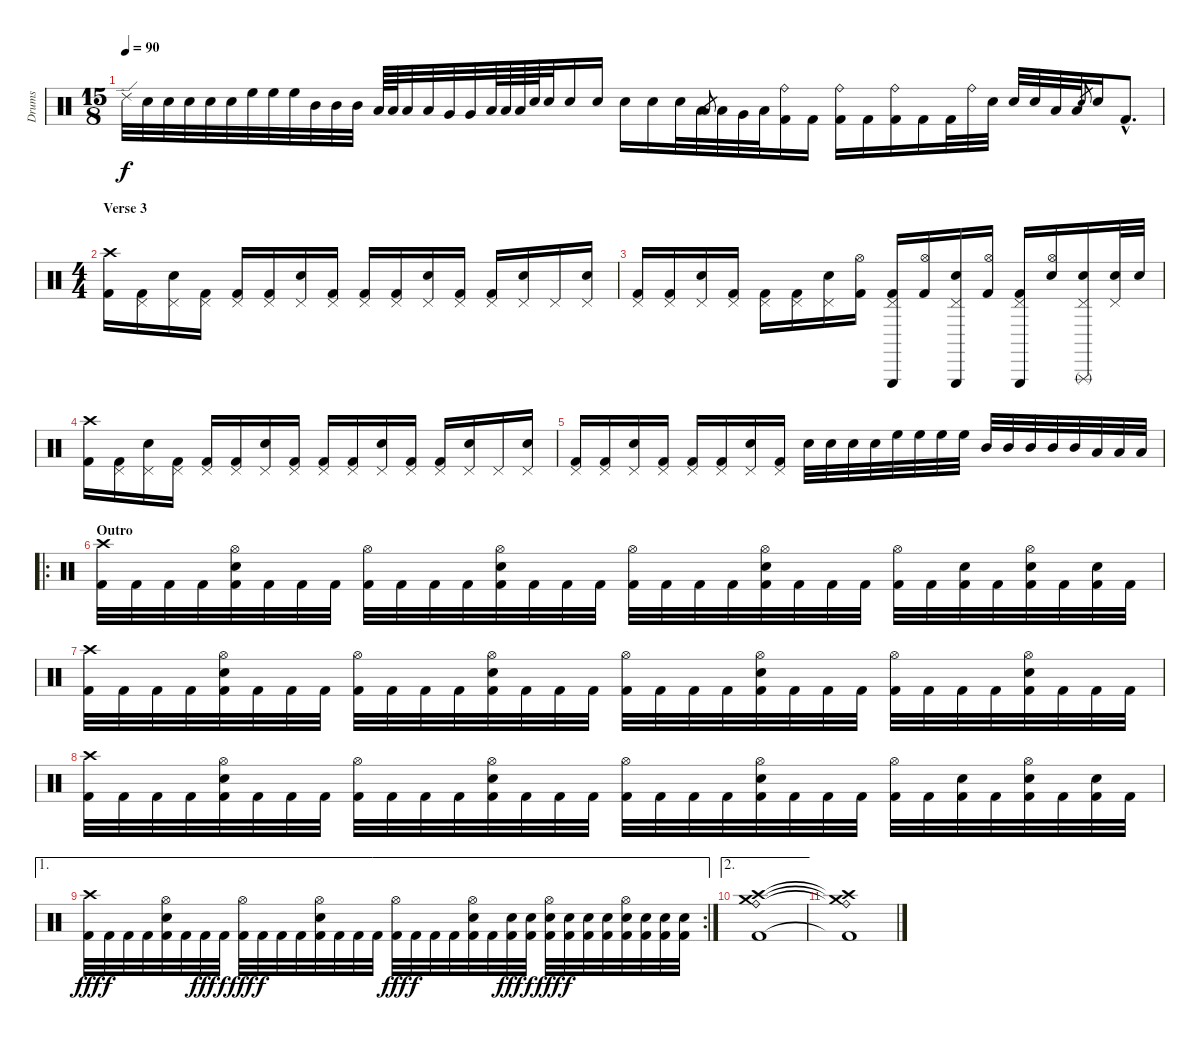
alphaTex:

\track ("Drums" "Drums") {instrument percussion}
\staff {score}
\articulation defaults
\ts (15 8)
\tempo 90
\clef neutral
\ks c "Ride (edge) 2".32{dy f} "Electric Snare (hit)".32 "Electric Snare (hit)".32 "Electric Snare (hit)".32 "Electric Snare (hit)".32 "Electric Snare (hit)".32 "High Floor Tom (hit)".32 "High Floor Tom (hit)".32 "High Floor Tom (hit)".32 "Mid Tom (hit)".32 "Mid Tom (hit)".32 "Mid Tom (hit)".32 "Low Tom (hit)".64 "Low Tom (hit)".64 "Low Tom (hit)".32 "Low Tom (hit)".32 "Very Low Tom (hit)".32 "Very Low Tom (hit)".32 "Low Tom (hit)".64 "Low Tom (hit)".64 "Low Tom (hit)".64 "Electric Snare (hit)".64 "Electric Snare (hit)".32 "Electric Snare (hit)".16 "Electric Snare (hit)".16 "Electric Snare (hit)".16 "Electric Snare (hit)".16 "Electric Snare (hit)".32 "Low Tom (hit)".32 "Low Tom (hit)".8{gr} "Low Tom (hit)".32 "Very Low Tom (hit)".32 "Low Tom (hit)".32
("Ride (bell)" "Kick (hit) 2").16 "Kick (hit) 2".16 ("Ride (bell)" "Kick (hit) 2").16 "Kick (hit) 2".16 ("Ride (bell)" "Kick (hit) 2").16 "Kick (hit) 2".16 "Kick (hit) 2".32 "Ride (bell)".32 "Electric Snare (hit)".32 "Electric Snare (hit)".32 "Electric Snare (hit)".32 "Low Tom (hit)".32 "Low Tom (hit)".32 "Electric Snare (hit)".8{gr} "Electric Snare (hit)".16 "Kick (hit) 2"{hac}.8{d} |
\ts (4 4)
\section ("" "Verse 3")
("Crash high (hit)" "Kick (hit) 2").16 ("Pedal Hi-Hat (hit)" "Kick (hit) 2").16 ("Pedal Hi-Hat (hit)" "Electric Snare (hit)").16 ("Pedal Hi-Hat (hit)" "Kick (hit) 2").16 ("Pedal Hi-Hat (hit)" "Kick (hit) 2").16 ("Pedal Hi-Hat (hit)" "Kick (hit) 2").16 ("Pedal Hi-Hat (hit)" "Electric Snare (hit)").16 ("Pedal Hi-Hat (hit)" "Kick (hit) 2").16 ("Pedal Hi-Hat (hit)" "Kick (hit) 2").16 ("Pedal Hi-Hat (hit)" "Kick (hit) 2").16 ("Pedal Hi-Hat (hit)" "Electric Snare (hit)").16 ("Pedal Hi-Hat (hit)" "Kick (hit) 2").16 ("Pedal Hi-Hat (hit)" "Kick (hit) 2").16 ("Pedal Hi-Hat (hit)" "Electric Snare (hit)").16 "Pedal Hi-Hat (hit)".16 ("Pedal Hi-Hat (hit)" "Electric Snare (hit)").16 |
("Pedal Hi-Hat (hit)" "Kick (hit) 2").16 ("Pedal Hi-Hat (hit)" "Kick (hit) 2").16 ("Pedal Hi-Hat (hit)" "Electric Snare (hit)").16 ("Pedal Hi-Hat (hit)" "Kick (hit) 2").16 ("Pedal Hi-Hat (hit)" "Kick (hit) 2").16 ("Pedal Hi-Hat (hit)" "Kick (hit) 2").16 ("Pedal Hi-Hat (hit)" "Electric Snare (hit)").16 ("Hi-Hat (open)" "Kick (hit) 2").16 ("Pedal Hi-Hat (hit)" "Triangle (hit)" "Kick (hit) 2").16 ("Hi-Hat (open)" "Kick (hit) 2").16 ("Pedal Hi-Hat (hit)" "Electric Snare (hit)" "Triangle (hit)").16 ("Hi-Hat (open)" "Kick (hit) 2").16 ("Pedal Hi-Hat (hit)" "Triangle (hit)" "Kick (hit) 2").16 ("Hi-Hat (open)" "Electric Snare (hit)").16 ("Pedal Hi-Hat (hit)" "Electric Snare (hit)" "Triangle (rnute)").16 ("Pedal Hi-Hat (hit)" "Electric Snare (hit)").32 "Electric Snare (hit)".32 |
("Crash high (hit)" "Kick (hit) 2").16 ("Pedal Hi-Hat (hit)" "Kick (hit) 2").16 ("Pedal Hi-Hat (hit)" "Electric Snare (hit)").16 ("Pedal Hi-Hat (hit)" "Kick (hit) 2").16 ("Pedal Hi-Hat (hit)" "Kick (hit) 2").16 ("Pedal Hi-Hat (hit)" "Kick (hit) 2").16 ("Pedal Hi-Hat (hit)" "Electric Snare (hit)").16 ("Pedal Hi-Hat (hit)" "Kick (hit) 2").16 ("Pedal Hi-Hat (hit)" "Kick (hit) 2").16 ("Pedal Hi-Hat (hit)" "Kick (hit) 2").16 ("Pedal Hi-Hat (hit)" "Electric Snare (hit)").16 ("Pedal Hi-Hat (hit)" "Kick (hit) 2").16 ("Pedal Hi-Hat (hit)" "Kick (hit) 2").16 ("Pedal Hi-Hat (hit)" "Electric Snare (hit)").16 "Pedal Hi-Hat (hit)".16 ("Pedal Hi-Hat (hit)" "Electric Snare (hit)").16 |
("Pedal Hi-Hat (hit)" "Kick (hit) 2").16 ("Pedal Hi-Hat (hit)" "Kick (hit) 2").16 ("Pedal Hi-Hat (hit)" "Electric Snare (hit)").16 ("Pedal Hi-Hat (hit)" "Kick (hit) 2").16 ("Pedal Hi-Hat (hit)" "Kick (hit) 2").16 ("Pedal Hi-Hat (hit)" "Kick (hit) 2").16 ("Pedal Hi-Hat (hit)" "Electric Snare (hit)").16 ("Pedal Hi-Hat (hit)" "Kick (hit) 2").16 "Electric Snare (hit)".32 "Electric Snare (hit)".32 "Electric Snare (hit)".32 "Electric Snare (hit)".32 "High Floor Tom (hit)".32 "High Floor Tom (hit)".32 "High Floor Tom (hit)".32 "High Floor Tom (hit)".32 "Mid Tom (hit)".32 "Mid Tom (hit)".32 "Mid Tom (hit)".32 "Mid Tom (hit)".32 "Mid Tom (hit)".32 "Low Tom (hit)".32 "Low Tom (hit)".32 "Low Tom (hit)".32 |
\ro
\section ("" "Outro")
("Crash high (hit)" "Kick (hit) 2").32 "Kick (hit) 2".32 "Kick (hit) 2".32 "Kick (hit) 2".32 ("Hi-Hat (open)" "Electric Snare (hit)" "Kick (hit) 2").32 "Kick (hit) 2".32 "Kick (hit) 2".32 "Kick (hit) 2".32 ("Hi-Hat (open)" "Kick (hit) 2").32 "Kick (hit) 2".32 "Kick (hit) 2".32 "Kick (hit) 2".32 ("Hi-Hat (open)" "Electric Snare (hit)" "Kick (hit) 2").32 "Kick (hit) 2".32 "Kick (hit) 2".32 "Kick (hit) 2".32 ("Hi-Hat (open)" "Kick (hit) 2").32 "Kick (hit) 2".32 "Kick (hit) 2".32 "Kick (hit) 2".32 ("Hi-Hat (open)" "Electric Snare (hit)" "Kick (hit) 2").32 "Kick (hit) 2".32 "Kick (hit) 2".32 "Kick (hit) 2".32 ("Hi-Hat (open)" "Kick (hit) 2").32 "Kick (hit) 2".32 ("Electric Snare (hit)" "Kick (hit) 2").32 "Kick (hit) 2".32 ("Hi-Hat (open)" "Electric Snare (hit)" "Kick (hit) 2").32 "Kick (hit) 2".32 ("Electric Snare (hit)" "Kick (hit) 2").32 "Kick (hit) 2".32 |
("Crash high (hit)" "Kick (hit) 2").32 "Kick (hit) 2".32 "Kick (hit) 2".32 "Kick (hit) 2".32 ("Hi-Hat (open)" "Electric Snare (hit)" "Kick (hit) 2").32 "Kick (hit) 2".32 "Kick (hit) 2".32 "Kick (hit) 2".32 ("Hi-Hat (open)" "Kick (hit) 2").32 "Kick (hit) 2".32 "Kick (hit) 2".32 "Kick (hit) 2".32 ("Hi-Hat (open)" "Electric Snare (hit)" "Kick (hit) 2").32 "Kick (hit) 2".32 "Kick (hit) 2".32 "Kick (hit) 2".32 ("Hi-Hat (open)" "Kick (hit) 2").32 "Kick (hit) 2".32 "Kick (hit) 2".32 "Kick (hit) 2".32 ("Hi-Hat (open)" "Electric Snare (hit)" "Kick (hit) 2").32 "Kick (hit) 2".32 "Kick (hit) 2".32 "Kick (hit) 2".32 ("Hi-Hat (open)" "Kick (hit) 2").32 "Kick (hit) 2".32 "Kick (hit) 2".32 "Kick (hit) 2".32 ("Hi-Hat (open)" "Electric Snare (hit)" "Kick (hit) 2").32 "Kick (hit) 2".32 "Kick (hit) 2".32 "Kick (hit) 2".32 |
("Crash high (hit)" "Kick (hit) 2").32 "Kick (hit) 2".32 "Kick (hit) 2".32 "Kick (hit) 2".32 ("Hi-Hat (open)" "Electric Snare (hit)" "Kick (hit) 2").32 "Kick (hit) 2".32 "Kick (hit) 2".32 "Kick (hit) 2".32 ("Hi-Hat (open)" "Kick (hit) 2").32 "Kick (hit) 2".32 "Kick (hit) 2".32 "Kick (hit) 2".32 ("Hi-Hat (open)" "Electric Snare (hit)" "Kick (hit) 2").32 "Kick (hit) 2".32 "Kick (hit) 2".32 "Kick (hit) 2".32 ("Hi-Hat (open)" "Kick (hit) 2").32 "Kick (hit) 2".32 "Kick (hit) 2".32 "Kick (hit) 2".32 ("Hi-Hat (open)" "Electric Snare (hit)" "Kick (hit) 2").32 "Kick (hit) 2".32 "Kick (hit) 2".32 "Kick (hit) 2".32 ("Hi-Hat (open)" "Kick (hit) 2").32 "Kick (hit) 2".32 ("Electric Snare (hit)" "Kick (hit) 2").32 "Kick (hit) 2".32 ("Hi-Hat (open)" "Electric Snare (hit)" "Kick (hit) 2").32 "Kick (hit) 2".32 ("Electric Snare (hit)" "Kick (hit) 2").32 "Kick (hit) 2".32 |
\ae 1
\rc 2
("Crash high (hit)" "Kick (hit) 2").32{dy fff} "Kick (hit) 2".32{dy f} "Kick (hit) 2".32 "Kick (hit) 2".32 ("Hi-Hat (open)" "Electric Snare (hit)" "Kick (hit) 2").32 "Kick (hit) 2".32 "Kick (hit) 2".32{dy fff} "Kick (hit) 2".32{dy f} ("Hi-Hat (open)" "Kick (hit) 2").32{dy fff} "Kick (hit) 2".32{dy f} "Kick (hit) 2".32 "Kick (hit) 2".32 ("Hi-Hat (open)" "Electric Snare (hit)" "Kick (hit) 2").32 "Kick (hit) 2".32 "Kick (hit) 2".32 "Kick (hit) 2".32 ("Hi-Hat (open)" "Kick (hit) 2").32{dy fff} "Kick (hit) 2".32{dy f} "Kick (hit) 2".32 "Kick (hit) 2".32 ("Hi-Hat (open)" "Electric Snare (hit)" "Kick (hit) 2").32 "Kick (hit) 2".32 ("Electric Snare (hit)" "Kick (hit) 2").32{dy fff} ("Electric Snare (hit)" "Kick (hit) 2").32{dy f} ("Hi-Hat (open)" "Electric Snare (hit)" "Kick (hit) 2").32{dy fff} ("Electric Snare (hit)" "Kick (hit) 2").32{dy f} ("Electric Snare (hit)" "Kick (hit) 2").32 ("Electric Snare (hit)" "Kick (hit) 2").32 ("Hi-Hat (open)" "Electric Snare (hit)" "Kick (hit) 2").32 ("Electric Snare (hit)" "Kick (hit) 2").32 ("Electric Snare (hit)" "Kick (hit) 2").32 ("Electric Snare (hit)" "Kick (hit) 2").32 |
\ae 2
("Ride (bell)" "Crash high (hit)" "Crash medium (hit)" "Kick (hit) 2").1 |
("Ride (bell)"{t} "Crash high (hit)"{t} "Crash medium (hit)"{t} "Kick (hit) 2"{t}).1
